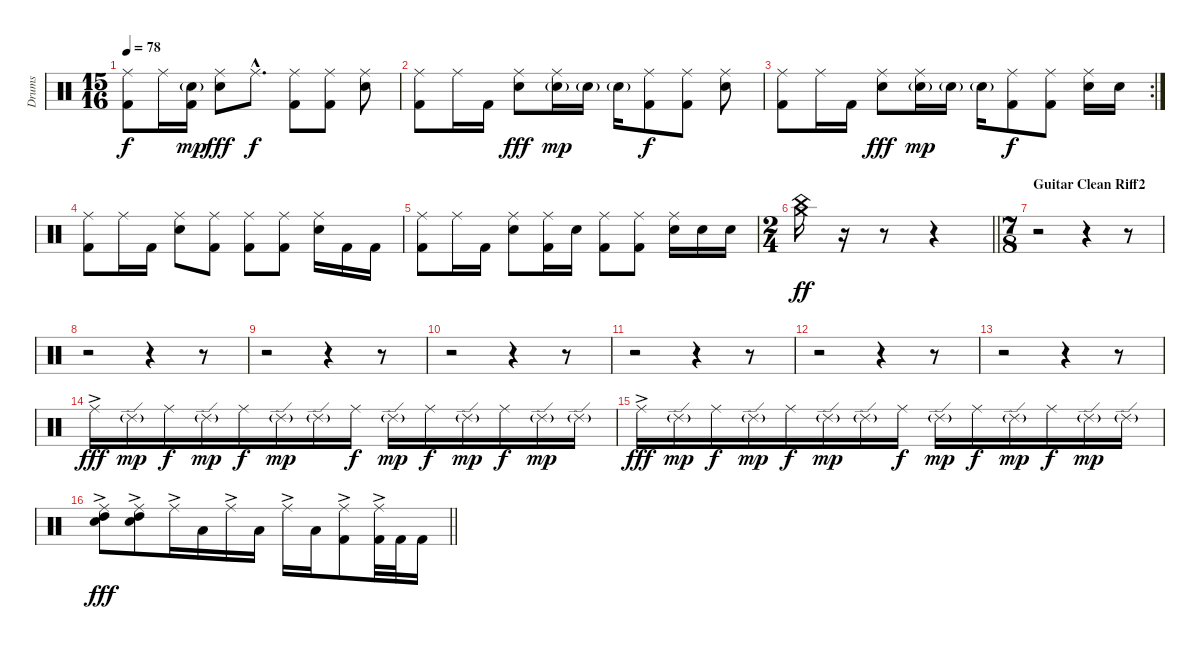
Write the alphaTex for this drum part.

\track ("Drums" "Drums") {instrument percussion}
\staff {score}
\articulation defaults
\ts (15 16)
\tempo 78
\clef neutral
\ks c
("Ride (middle)" "Kick (hit) 2").8{dy f} "Ride (middle)".16 ("Snare (hit) 2"{g} "Kick (hit) 2").16{dy mp} ("Ride (middle)" "Snare (hit) 2").8{dy fff} "Ride (middle)"{hac}.8{d dy f} ("Ride (middle)" "Kick (hit) 2").8 ("Ride (middle)" "Kick (hit) 2").8 ("Ride (middle)" "Snare (hit) 2").8 |
("Ride (middle)" "Kick (hit) 2").8 "Ride (middle)".16 "Kick (hit) 2".16 ("Ride (middle)" "Snare (hit) 2").8{dy fff} ("Ride (middle)" "Snare (hit) 2"{g}).16{dy mp} "Snare (hit) 2"{g}.16 "Snare (hit) 2"{g}.16 ("Ride (middle)" "Kick (hit) 2").8{dy f} ("Ride (middle)" "Kick (hit) 2").8 ("Ride (middle)" "Snare (hit) 2").8 |
\rc 2
("Ride (middle)" "Kick (hit) 2").8 "Ride (middle)".16 "Kick (hit) 2".16 ("Ride (middle)" "Snare (hit) 2").8{dy fff} ("Ride (middle)" "Snare (hit) 2"{g}).16{dy mp} "Snare (hit) 2"{g}.16 "Snare (hit) 2"{g}.16 ("Ride (middle)" "Kick (hit) 2").8{dy f} ("Ride (middle)" "Kick (hit) 2").8 ("Ride (middle)" "Snare (hit) 2").16 "Snare (hit) 2".16 |
("Ride (middle)" "Kick (hit) 2").8 "Ride (middle)".16 "Kick (hit) 2".16 ("Ride (middle)" "Snare (hit) 2").8 ("Ride (middle)" "Kick (hit) 2").8 ("Ride (middle)" "Kick (hit) 2").8 ("Ride (middle)" "Kick (hit) 2").8 ("Ride (middle)" "Snare (hit) 2").16 "Kick (hit) 2".16 "Kick (hit) 2".16 |
("Ride (middle)" "Kick (hit) 2").8 "Ride (middle)".16 "Kick (hit) 2".16 ("Ride (middle)" "Snare (hit) 2").8 ("Ride (middle)" "Kick (hit) 2").16 "Snare (hit) 2".16 ("Ride (middle)" "Kick (hit) 2").8 ("Ride (middle)" "Kick (hit) 2").8 ("Ride (middle)" "Snare (hit) 2").16 "Snare (hit) 2".16 "Snare (hit) 2".16 |
\ts (2 4)
\barLineRight lightlight
("Crash medium (hit)" "China (hit)").16{dy ff} r.16 r.8 r.4 |
\ts (7 8)
\section ("" "Guitar Clean Riff2")
r.2 r.4 r.8 |
r.2 r.4 r.8 |
r.2 r.4 r.8 |
r.2 r.4 r.8 |
r.2 r.4 r.8 |
r.2{volume 0} r.4 r.8 |
r.2 r.4 r.8 |
"Ride (middle)"{ac}.16{dy fff volume 9} "Ride (edge) 2"{g}.16{dy mp} "Ride (middle)".16{dy f} "Ride (edge) 2"{g}.16{dy mp} "Ride (middle)".16{dy f} "Ride (edge) 2"{g}.16{dy mp} "Ride (edge) 2"{g}.16 "Ride (middle)".16{dy f} "Ride (edge) 2"{g}.16{dy mp} "Ride (middle)".16{dy f} "Ride (edge) 2"{g}.16{dy mp} "Ride (middle)".16{dy f} "Ride (edge) 2"{g}.16{dy mp} "Ride (edge) 2"{g}.16 |
"Ride (middle)"{ac}.16{dy fff} "Ride (edge) 2"{g}.16{dy mp} "Ride (middle)".16{dy f} "Ride (edge) 2"{g}.16{dy mp} "Ride (middle)".16{dy f} "Ride (edge) 2"{g}.16{dy mp} "Ride (edge) 2"{g}.16 "Ride (middle)".16{dy f} "Ride (edge) 2"{g}.16{dy mp} "Ride (middle)".16{dy f} "Ride (edge) 2"{g}.16{dy mp} "Ride (middle)".16{dy f} "Ride (edge) 2"{g}.16{dy mp} "Ride (edge) 2"{g}.16 |
\barLineRight lightlight
("Ride (middle)"{ac} "Snare (hit) 2" "High Tom (hit)").8{dy fff volume 14} ("Ride (middle)"{ac} "Snare (hit) 2" "High Tom (hit)").8 "Ride (middle)"{ac}.16 "Low Tom (hit)".16 "Ride (middle)"{ac}.16 "Low Tom (hit)".16 "Ride (middle)"{ac}.16 "Low Floor Tom (hit)".16 ("Ride (middle)"{ac} "Kick (hit) 2").8 ("Ride (middle)"{ac} "Kick (hit) 2").32 "Kick (hit) 2".32 "Kick (hit) 2".16
